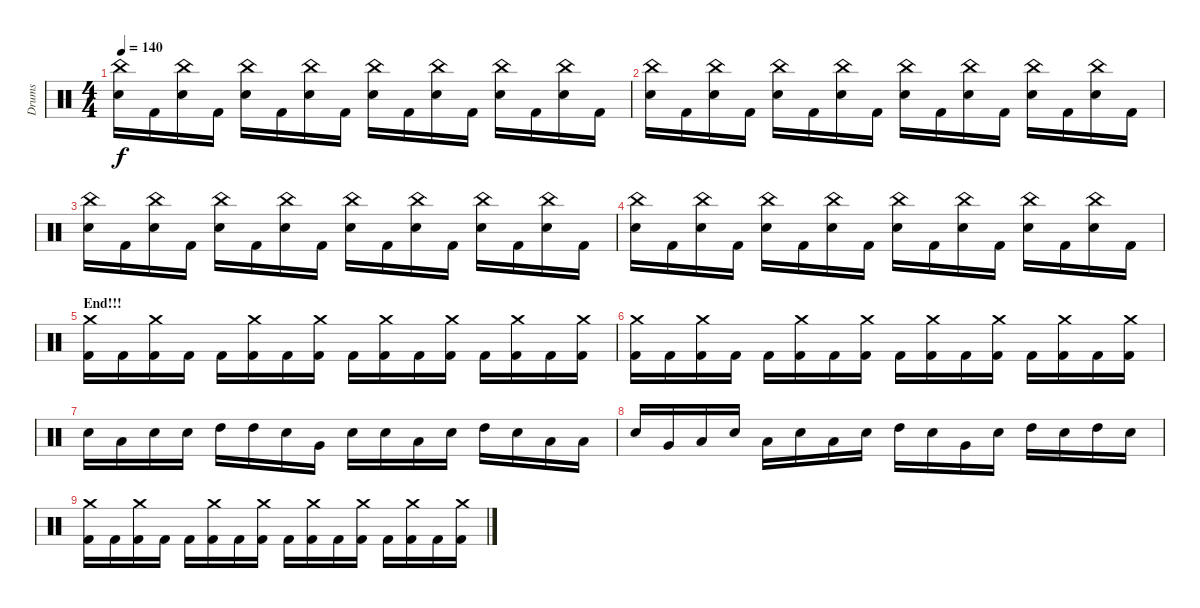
\track ("Drums" "Drums") {instrument percussion}
\staff {score}
\articulation defaults
\ts (4 4)
\tempo 140
\clef neutral
\ks c
("China (hit)" "Electric Snare (hit)").16{dy f} "Kick (hit) 2".16 ("Electric Snare (hit)" "China (hit)").16 "Kick (hit) 2".16 ("China (hit)" "Electric Snare (hit)").16 "Kick (hit) 2".16 ("Electric Snare (hit)" "China (hit)").16 "Kick (hit) 2".16 ("China (hit)" "Electric Snare (hit)").16 "Kick (hit) 2".16 ("Electric Snare (hit)" "China (hit)").16 "Kick (hit) 2".16 ("China (hit)" "Electric Snare (hit)").16 "Kick (hit) 2".16 ("China (hit)" "Electric Snare (hit)").16 "Kick (hit) 2".16 |
("China (hit)" "Electric Snare (hit)").16 "Kick (hit) 2".16 ("Electric Snare (hit)" "China (hit)").16 "Kick (hit) 2".16 ("China (hit)" "Electric Snare (hit)").16 "Kick (hit) 2".16 ("Electric Snare (hit)" "China (hit)").16 "Kick (hit) 2".16 ("China (hit)" "Electric Snare (hit)").16 "Kick (hit) 2".16 ("Electric Snare (hit)" "China (hit)").16 "Kick (hit) 2".16 ("China (hit)" "Electric Snare (hit)").16 "Kick (hit) 2".16 ("China (hit)" "Electric Snare (hit)").16 "Kick (hit) 2".16 |
("China (hit)" "Electric Snare (hit)").16 "Kick (hit) 2".16 ("Electric Snare (hit)" "China (hit)").16 "Kick (hit) 2".16 ("China (hit)" "Electric Snare (hit)").16 "Kick (hit) 2".16 ("Electric Snare (hit)" "China (hit)").16 "Kick (hit) 2".16 ("China (hit)" "Electric Snare (hit)").16 "Kick (hit) 2".16 ("Electric Snare (hit)" "China (hit)").16 "Kick (hit) 2".16 ("China (hit)" "Electric Snare (hit)").16 "Kick (hit) 2".16 ("China (hit)" "Electric Snare (hit)").16 "Kick (hit) 2".16 |
("China (hit)" "Electric Snare (hit)").16 "Kick (hit) 2".16 ("Electric Snare (hit)" "China (hit)").16 "Kick (hit) 2".16 ("China (hit)" "Electric Snare (hit)").16 "Kick (hit) 2".16 ("Electric Snare (hit)" "China (hit)").16 "Kick (hit) 2".16 ("China (hit)" "Electric Snare (hit)").16 "Kick (hit) 2".16 ("Electric Snare (hit)" "China (hit)").16 "Kick (hit) 2".16 ("China (hit)" "Electric Snare (hit)").16 "Kick (hit) 2".16 ("China (hit)" "Electric Snare (hit)").16 "Kick (hit) 2".16 |
\section ("" "End!!!")
("Crash medium (hit)" "Kick (hit) 2").16 "Kick (hit) 2".16 ("Kick (hit) 2" "Crash medium (hit)").16 "Kick (hit) 2".16 "Kick (hit) 2".16 ("Kick (hit) 2" "Crash medium (hit)").16 "Kick (hit) 2".16 ("Crash medium (hit)" "Kick (hit) 2").16 "Kick (hit) 2".16 ("Kick (hit) 2" "Crash medium (hit)").16 "Kick (hit) 2".16 ("Crash medium (hit)" "Kick (hit) 2").16 "Kick (hit) 2".16 ("Kick (hit) 2" "Crash medium (hit)").16 "Kick (hit) 2".16 ("Crash medium (hit)" "Kick (hit) 2").16 |
("Crash medium (hit)" "Kick (hit) 2").16 "Kick (hit) 2".16 ("Kick (hit) 2" "Crash medium (hit)").16 "Kick (hit) 2".16 "Kick (hit) 2".16 ("Kick (hit) 2" "Crash medium (hit)").16 "Kick (hit) 2".16 ("Crash medium (hit)" "Kick (hit) 2").16 "Kick (hit) 2".16 ("Kick (hit) 2" "Crash medium (hit)").16 "Kick (hit) 2".16 ("Crash medium (hit)" "Kick (hit) 2").16 "Kick (hit) 2".16 ("Kick (hit) 2" "Crash medium (hit)").16 "Kick (hit) 2".16 ("Crash medium (hit)" "Kick (hit) 2").16 |
"Electric Snare (hit)".16 "Low Tom (hit)".16 "Electric Snare (hit)".16 "Electric Snare (hit)".16 "High Tom (hit)".16 "High Tom (hit)".16 "Electric Snare (hit)".16 "Very Low Tom (hit)".16 "Electric Snare (hit)".16 "Electric Snare (hit)".16 "Low Tom (hit)".16 "Electric Snare (hit)".16 "High Tom (hit)".16 "Electric Snare (hit)".16 "Low Floor Tom (hit)".16 "Low Floor Tom (hit)".16 |
"Electric Snare (hit)".16 "Very Low Tom (hit)".16 "Low Tom (hit)".16 "Electric Snare (hit)".16 "Low Tom (hit)".16 "Electric Snare (hit)".16 "Low Floor Tom (hit)".16 "Electric Snare (hit)".16 "High Tom (hit)".16 "Electric Snare (hit)".16 "Very Low Tom (hit)".16 "Electric Snare (hit)".16 "High Tom (hit)".16 "Electric Snare (hit)".16 "High Tom (hit)".16 "Electric Snare (hit)".16 |
("Crash medium (hit)" "Kick (hit) 2").16 "Kick (hit) 2".16 ("Kick (hit) 2" "Crash medium (hit)").16 "Kick (hit) 2".16 "Kick (hit) 2".16 ("Kick (hit) 2" "Crash medium (hit)").16 "Kick (hit) 2".16 ("Crash medium (hit)" "Kick (hit) 2").16 "Kick (hit) 2".16 ("Kick (hit) 2" "Crash medium (hit)").16 "Kick (hit) 2".16 ("Crash medium (hit)" "Kick (hit) 2").16 "Kick (hit) 2".16 ("Kick (hit) 2" "Crash medium (hit)").16 "Kick (hit) 2".16 ("Crash medium (hit)" "Kick (hit) 2").16
